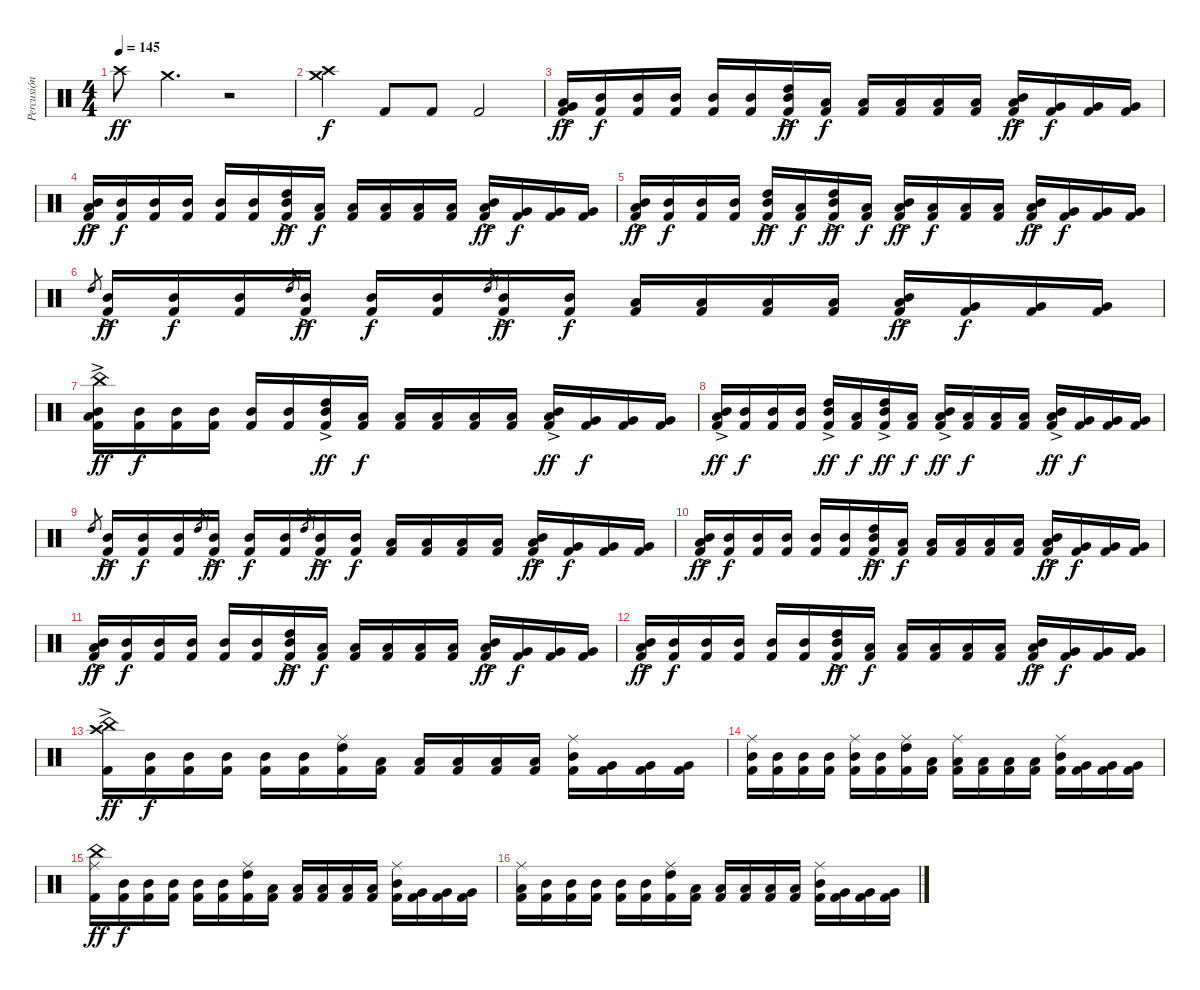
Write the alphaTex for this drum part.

\track ("Percusión" "Percusión") {instrument percussion}
\staff {score}
\articulation defaults
\ts (4 4)
\tempo 145
\clef neutral
\ks c "Crash high (hit)".8{dy ff} "Crash medium (hit)".4{d}
r.2 |
("Crash medium (hit)" "Crash high (hit)").4{dy f} "Kick (hit) 2".8 "Kick (hit) 2".8 "Kick (hit) 2".2 |
("Low Tom (hit)" "Very Low Tom (hit)"{ac} "Kick (hit) 2").16{dy ff} ("Mid Tom (hit)" "Kick (hit) 2").16{dy f} ("Mid Tom (hit)" "Kick (hit) 2").16 ("Mid Tom (hit)" "Kick (hit) 2").16 ("Mid Tom (hit)" "Kick (hit) 2").16 ("Mid Tom (hit)" "Kick (hit) 2").16 ("High Tom (hit)" "Mid Tom (hit)"{ac} "Kick (hit) 2").16{dy ff} ("Low Tom (hit)" "Kick (hit) 2").16{dy f} ("Low Tom (hit)" "Kick (hit) 2").16 ("Low Tom (hit)" "Kick (hit) 2").16 ("Low Tom (hit)" "Kick (hit) 2").16 ("Low Tom (hit)" "Kick (hit) 2").16 ("Mid Tom (hit)" "Low Tom (hit)"{ac} "Kick (hit) 2").16{dy ff} ("Very Low Tom (hit)" "Kick (hit) 2").16{dy f} ("Very Low Tom (hit)" "Kick (hit) 2").16 ("Very Low Tom (hit)" "Kick (hit) 2").16 |
("Mid Tom (hit)" "Low Tom (hit)"{ac} "Kick (hit) 2").16{dy ff} ("Mid Tom (hit)" "Kick (hit) 2").16{dy f} ("Mid Tom (hit)" "Kick (hit) 2").16 ("Mid Tom (hit)" "Kick (hit) 2").16 ("Mid Tom (hit)" "Kick (hit) 2").16 ("Mid Tom (hit)" "Kick (hit) 2").16 ("High Tom (hit)" "Mid Tom (hit)"{ac} "Kick (hit) 2").16{dy ff} ("Low Tom (hit)" "Kick (hit) 2").16{dy f} ("Low Tom (hit)" "Kick (hit) 2").16 ("Low Tom (hit)" "Kick (hit) 2").16 ("Low Tom (hit)" "Kick (hit) 2").16 ("Low Tom (hit)" "Kick (hit) 2").16 ("Mid Tom (hit)" "Low Tom (hit)"{ac} "Kick (hit) 2").16{dy ff} ("Very Low Tom (hit)" "Kick (hit) 2").16{dy f} ("Very Low Tom (hit)" "Kick (hit) 2").16 ("Very Low Tom (hit)" "Kick (hit) 2").16 |
("Mid Tom (hit)" "Low Tom (hit)"{ac} "Kick (hit) 2").16{dy ff} ("Mid Tom (hit)" "Kick (hit) 2").16{dy f} ("Mid Tom (hit)" "Kick (hit) 2").16 ("Mid Tom (hit)" "Kick (hit) 2").16 ("High Tom (hit)" "Mid Tom (hit)"{ac} "Kick (hit) 2").16{dy ff} ("Low Tom (hit)" "Kick (hit) 2").16{dy f} ("High Tom (hit)" "Mid Tom (hit)"{ac} "Kick (hit) 2").16{dy ff} ("Low Tom (hit)" "Kick (hit) 2").16{dy f} ("Mid Tom (hit)" "Low Tom (hit)"{ac} "Kick (hit) 2").16{dy ff} ("Low Tom (hit)" "Kick (hit) 2").16{dy f} ("Low Tom (hit)" "Kick (hit) 2").16 ("Low Tom (hit)" "Kick (hit) 2").16 ("Mid Tom (hit)" "Low Tom (hit)"{ac} "Kick (hit) 2").16{dy ff} ("Very Low Tom (hit)" "Kick (hit) 2").16{dy f} ("Very Low Tom (hit)" "Kick (hit) 2").16 ("Very Low Tom (hit)" "Kick (hit) 2").16 |
"High Tom (hit)".8{gr} ("Mid Tom (hit)"{ac} "Kick (hit) 2").16{dy ff} ("Mid Tom (hit)" "Kick (hit) 2").16{dy f} ("Mid Tom (hit)" "Kick (hit) 2").16 "High Tom (hit)".8{gr} ("Mid Tom (hit)"{ac} "Kick (hit) 2").16{dy ff} ("Mid Tom (hit)" "Kick (hit) 2").16{dy f} ("Mid Tom (hit)" "Kick (hit) 2").16 "High Tom (hit)".8{gr} ("Mid Tom (hit)"{ac} "Kick (hit) 2").16{dy ff} ("Mid Tom (hit)" "Kick (hit) 2").16{dy f} ("Low Tom (hit)" "Kick (hit) 2").16 ("Low Tom (hit)" "Kick (hit) 2").16 ("Low Tom (hit)" "Kick (hit) 2").16 ("Low Tom (hit)" "Kick (hit) 2").16 ("Mid Tom (hit)" "Low Tom (hit)"{ac} "Kick (hit) 2").16{dy ff} ("Very Low Tom (hit)" "Kick (hit) 2").16{dy f} ("Very Low Tom (hit)" "Kick (hit) 2").16 ("Very Low Tom (hit)" "Kick (hit) 2").16 |
("China (hit)" "Mid Tom (hit)" "Low Tom (hit)"{ac} "Kick (hit) 2").16{dy ff} ("Mid Tom (hit)" "Kick (hit) 2").16{dy f} ("Mid Tom (hit)" "Kick (hit) 2").16 ("Mid Tom (hit)" "Kick (hit) 2").16 ("Mid Tom (hit)" "Kick (hit) 2").16 ("Mid Tom (hit)" "Kick (hit) 2").16 ("High Tom (hit)" "Mid Tom (hit)"{ac} "Kick (hit) 2").16{dy ff} ("Low Tom (hit)" "Kick (hit) 2").16{dy f} ("Low Tom (hit)" "Kick (hit) 2").16 ("Low Tom (hit)" "Kick (hit) 2").16 ("Low Tom (hit)" "Kick (hit) 2").16 ("Low Tom (hit)" "Kick (hit) 2").16 ("Mid Tom (hit)" "Low Tom (hit)"{ac} "Kick (hit) 2").16{dy ff} ("Very Low Tom (hit)" "Kick (hit) 2").16{dy f} ("Very Low Tom (hit)" "Kick (hit) 2").16 ("Very Low Tom (hit)" "Kick (hit) 2").16 |
("Mid Tom (hit)" "Low Tom (hit)"{ac} "Kick (hit) 2").16{dy ff} ("Mid Tom (hit)" "Kick (hit) 2").16{dy f} ("Mid Tom (hit)" "Kick (hit) 2").16 ("Mid Tom (hit)" "Kick (hit) 2").16 ("High Tom (hit)" "Mid Tom (hit)"{ac} "Kick (hit) 2").16{dy ff} ("Low Tom (hit)" "Kick (hit) 2").16{dy f} ("High Tom (hit)" "Mid Tom (hit)"{ac} "Kick (hit) 2").16{dy ff} ("Low Tom (hit)" "Kick (hit) 2").16{dy f} ("Mid Tom (hit)" "Low Tom (hit)"{ac} "Kick (hit) 2").16{dy ff} ("Low Tom (hit)" "Kick (hit) 2").16{dy f} ("Low Tom (hit)" "Kick (hit) 2").16 ("Low Tom (hit)" "Kick (hit) 2").16 ("Mid Tom (hit)" "Low Tom (hit)"{ac} "Kick (hit) 2").16{dy ff} ("Very Low Tom (hit)" "Kick (hit) 2").16{dy f} ("Very Low Tom (hit)" "Kick (hit) 2").16 ("Very Low Tom (hit)" "Kick (hit) 2").16 |
"High Tom (hit)".8{gr} ("Mid Tom (hit)"{ac} "Kick (hit) 2").16{dy ff} ("Mid Tom (hit)" "Kick (hit) 2").16{dy f} ("Mid Tom (hit)" "Kick (hit) 2").16 "High Tom (hit)".8{gr} ("Mid Tom (hit)"{ac} "Kick (hit) 2").16{dy ff} ("Mid Tom (hit)" "Kick (hit) 2").16{dy f} ("Mid Tom (hit)" "Kick (hit) 2").16 "High Tom (hit)".8{gr} ("Mid Tom (hit)"{ac} "Kick (hit) 2").16{dy ff} ("Mid Tom (hit)" "Kick (hit) 2").16{dy f} ("Low Tom (hit)" "Kick (hit) 2").16 ("Low Tom (hit)" "Kick (hit) 2").16 ("Low Tom (hit)" "Kick (hit) 2").16 ("Low Tom (hit)" "Kick (hit) 2").16 ("Mid Tom (hit)" "Low Tom (hit)"{ac} "Kick (hit) 2").16{dy ff} ("Very Low Tom (hit)" "Kick (hit) 2").16{dy f} ("Very Low Tom (hit)" "Kick (hit) 2").16 ("Very Low Tom (hit)" "Kick (hit) 2").16 |
("Mid Tom (hit)" "Low Tom (hit)"{ac} "Kick (hit) 2").16{dy ff} ("Mid Tom (hit)" "Kick (hit) 2").16{dy f} ("Mid Tom (hit)" "Kick (hit) 2").16 ("Mid Tom (hit)" "Kick (hit) 2").16 ("Mid Tom (hit)" "Kick (hit) 2").16 ("Mid Tom (hit)" "Kick (hit) 2").16 ("High Tom (hit)" "Mid Tom (hit)"{ac} "Kick (hit) 2").16{dy ff} ("Low Tom (hit)" "Kick (hit) 2").16{dy f} ("Low Tom (hit)" "Kick (hit) 2").16 ("Low Tom (hit)" "Kick (hit) 2").16 ("Low Tom (hit)" "Kick (hit) 2").16 ("Low Tom (hit)" "Kick (hit) 2").16 ("Mid Tom (hit)" "Low Tom (hit)"{ac} "Kick (hit) 2").16{dy ff} ("Very Low Tom (hit)" "Kick (hit) 2").16{dy f} ("Very Low Tom (hit)" "Kick (hit) 2").16 ("Very Low Tom (hit)" "Kick (hit) 2").16 |
("Mid Tom (hit)" "Low Tom (hit)"{ac} "Kick (hit) 2").16{dy ff} ("Mid Tom (hit)" "Kick (hit) 2").16{dy f} ("Mid Tom (hit)" "Kick (hit) 2").16 ("Mid Tom (hit)" "Kick (hit) 2").16 ("Mid Tom (hit)" "Kick (hit) 2").16 ("Mid Tom (hit)" "Kick (hit) 2").16 ("High Tom (hit)" "Mid Tom (hit)"{ac} "Kick (hit) 2").16{dy ff} ("Low Tom (hit)" "Kick (hit) 2").16{dy f} ("Low Tom (hit)" "Kick (hit) 2").16 ("Low Tom (hit)" "Kick (hit) 2").16 ("Low Tom (hit)" "Kick (hit) 2").16 ("Low Tom (hit)" "Kick (hit) 2").16 ("Mid Tom (hit)" "Low Tom (hit)"{ac} "Kick (hit) 2").16{dy ff} ("Very Low Tom (hit)" "Kick (hit) 2").16{dy f} ("Very Low Tom (hit)" "Kick (hit) 2").16 ("Very Low Tom (hit)" "Kick (hit) 2").16 |
("Mid Tom (hit)" "Low Tom (hit)"{ac} "Kick (hit) 2").16{dy ff} ("Mid Tom (hit)" "Kick (hit) 2").16{dy f} ("Mid Tom (hit)" "Kick (hit) 2").16 ("Mid Tom (hit)" "Kick (hit) 2").16 ("Mid Tom (hit)" "Kick (hit) 2").16 ("Mid Tom (hit)" "Kick (hit) 2").16 ("High Tom (hit)" "Mid Tom (hit)"{ac} "Kick (hit) 2").16{dy ff} ("Low Tom (hit)" "Kick (hit) 2").16{dy f} ("Low Tom (hit)" "Kick (hit) 2").16 ("Low Tom (hit)" "Kick (hit) 2").16 ("Low Tom (hit)" "Kick (hit) 2").16 ("Low Tom (hit)" "Kick (hit) 2").16 ("Mid Tom (hit)" "Low Tom (hit)"{ac} "Kick (hit) 2").16{dy ff} ("Very Low Tom (hit)" "Kick (hit) 2").16{dy f} ("Very Low Tom (hit)" "Kick (hit) 2").16 ("Very Low Tom (hit)" "Kick (hit) 2").16 |
("Crash high (hit)" "China (hit)"{ac} "Kick (hit) 2").16{dy ff} ("Mid Tom (hit)" "Kick (hit) 2").16{dy f} ("Mid Tom (hit)" "Kick (hit) 2").16 ("Mid Tom (hit)" "Kick (hit) 2").16 ("Mid Tom (hit)" "Kick (hit) 2").16 ("Mid Tom (hit)" "Kick (hit) 2").16 ("Ride (middle)" "High Tom (hit)" "Kick (hit) 2").16 ("Low Tom (hit)" "Kick (hit) 2").16 ("Low Tom (hit)" "Kick (hit) 2").16 ("Low Tom (hit)" "Kick (hit) 2").16 ("Low Tom (hit)" "Kick (hit) 2").16 ("Low Tom (hit)" "Kick (hit) 2").16 ("Ride (middle)" "Mid Tom (hit)" "Kick (hit) 2").16 ("Very Low Tom (hit)" "Kick (hit) 2").16 ("Very Low Tom (hit)" "Kick (hit) 2").16 ("Very Low Tom (hit)" "Kick (hit) 2").16 |
("Ride (middle)" "Mid Tom (hit)" "Kick (hit) 2").16 ("Mid Tom (hit)" "Kick (hit) 2").16 ("Mid Tom (hit)" "Kick (hit) 2").16 ("Mid Tom (hit)" "Kick (hit) 2").16 ("Ride (middle)" "Mid Tom (hit)" "Kick (hit) 2").16 ("Mid Tom (hit)" "Kick (hit) 2").16 ("Ride (middle)" "High Tom (hit)" "Kick (hit) 2").16 ("Low Tom (hit)" "Kick (hit) 2").16 ("Ride (middle)" "Low Tom (hit)" "Kick (hit) 2").16 ("Low Tom (hit)" "Kick (hit) 2").16 ("Low Tom (hit)" "Kick (hit) 2").16 ("Low Tom (hit)" "Kick (hit) 2").16 ("Ride (middle)" "Mid Tom (hit)" "Kick (hit) 2").16 ("Very Low Tom (hit)" "Kick (hit) 2").16 ("Very Low Tom (hit)" "Kick (hit) 2").16 ("Very Low Tom (hit)" "Kick (hit) 2").16 |
("China (hit)" "Ride (middle)" "Kick (hit) 2").16{dy ff} ("Mid Tom (hit)" "Kick (hit) 2").16{dy f} ("Mid Tom (hit)" "Kick (hit) 2").16 ("Mid Tom (hit)" "Kick (hit) 2").16 ("Mid Tom (hit)" "Kick (hit) 2").16 ("Mid Tom (hit)" "Kick (hit) 2").16 ("Ride (middle)" "High Tom (hit)" "Kick (hit) 2").16 ("Low Tom (hit)" "Kick (hit) 2").16 ("Low Tom (hit)" "Kick (hit) 2").16 ("Low Tom (hit)" "Kick (hit) 2").16 ("Low Tom (hit)" "Kick (hit) 2").16 ("Low Tom (hit)" "Kick (hit) 2").16 ("Ride (middle)" "Mid Tom (hit)" "Kick (hit) 2").16 ("Very Low Tom (hit)" "Kick (hit) 2").16 ("Very Low Tom (hit)" "Kick (hit) 2").16 ("Very Low Tom (hit)" "Kick (hit) 2").16 |
("Ride (middle)" "Low Tom (hit)" "Kick (hit) 2").16 ("Mid Tom (hit)" "Kick (hit) 2").16 ("Mid Tom (hit)" "Kick (hit) 2").16 ("Mid Tom (hit)" "Kick (hit) 2").16 ("Mid Tom (hit)" "Kick (hit) 2").16 ("Mid Tom (hit)" "Kick (hit) 2").16 ("Ride (middle)" "High Tom (hit)" "Kick (hit) 2").16 ("Low Tom (hit)" "Kick (hit) 2").16 ("Low Tom (hit)" "Kick (hit) 2").16 ("Low Tom (hit)" "Kick (hit) 2").16 ("Low Tom (hit)" "Kick (hit) 2").16 ("Low Tom (hit)" "Kick (hit) 2").16 ("Ride (middle)" "Mid Tom (hit)" "Kick (hit) 2").16 ("Very Low Tom (hit)" "Kick (hit) 2").16 ("Very Low Tom (hit)" "Kick (hit) 2").16 ("Very Low Tom (hit)" "Kick (hit) 2").16
